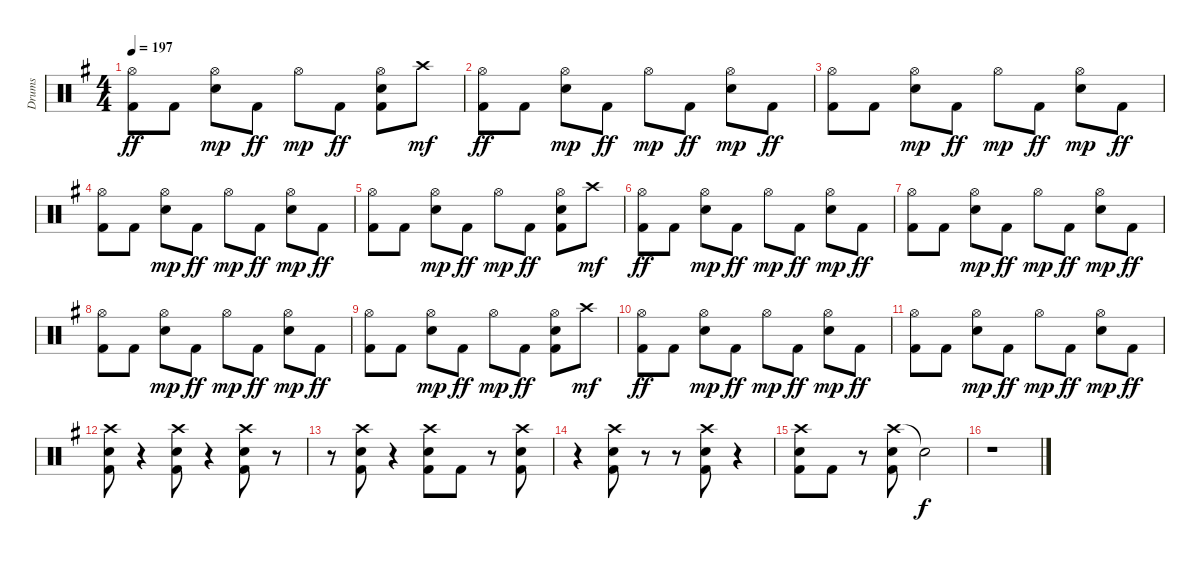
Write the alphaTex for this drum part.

\track ("Drums" "Drums") {instrument percussion}
\staff {score}
\articulation defaults
\ts (4 4)
\tempo 197
\clef neutral
\ks g
("Hi-Hat (open)" "Kick (hit) 2").8{dy ff} "Kick (hit) 2".8 ("Hi-Hat (open)" "Snare (hit) 2").8{dy mp} "Kick (hit) 2".8{dy ff} "Hi-Hat (open)".8{dy mp} "Kick (hit) 2".8{dy ff} ("Hi-Hat (open)" "Snare (hit) 2" "Kick (hit) 2").8 "Crash high (hit)".8{dy mf} |
("Hi-Hat (open)" "Kick (hit) 2").8{dy ff} "Kick (hit) 2".8 ("Hi-Hat (open)" "Snare (hit) 2").8{dy mp} "Kick (hit) 2".8{dy ff} "Hi-Hat (open)".8{dy mp} "Kick (hit) 2".8{dy ff} ("Hi-Hat (open)" "Snare (hit) 2").8{dy mp} "Kick (hit) 2".8{dy ff} |
("Hi-Hat (open)" "Kick (hit) 2").8 "Kick (hit) 2".8 ("Hi-Hat (open)" "Snare (hit) 2").8{dy mp} "Kick (hit) 2".8{dy ff} "Hi-Hat (open)".8{dy mp} "Kick (hit) 2".8{dy ff} ("Hi-Hat (open)" "Snare (hit) 2").8{dy mp} "Kick (hit) 2".8{dy ff} |
("Hi-Hat (open)" "Kick (hit) 2").8 "Kick (hit) 2".8 ("Hi-Hat (open)" "Snare (hit) 2").8{dy mp} "Kick (hit) 2".8{dy ff} "Hi-Hat (open)".8{dy mp} "Kick (hit) 2".8{dy ff} ("Hi-Hat (open)" "Snare (hit) 2").8{dy mp} "Kick (hit) 2".8{dy ff} |
("Hi-Hat (open)" "Kick (hit) 2").8 "Kick (hit) 2".8 ("Hi-Hat (open)" "Snare (hit) 2").8{dy mp} "Kick (hit) 2".8{dy ff} "Hi-Hat (open)".8{dy mp} "Kick (hit) 2".8{dy ff} ("Hi-Hat (open)" "Snare (hit) 2" "Kick (hit) 2").8 "Crash high (hit)".8{dy mf} |
("Hi-Hat (open)" "Kick (hit) 2").8{dy ff} "Kick (hit) 2".8 ("Hi-Hat (open)" "Snare (hit) 2").8{dy mp} "Kick (hit) 2".8{dy ff} "Hi-Hat (open)".8{dy mp} "Kick (hit) 2".8{dy ff} ("Hi-Hat (open)" "Snare (hit) 2").8{dy mp} "Kick (hit) 2".8{dy ff} |
("Hi-Hat (open)" "Kick (hit) 2").8 "Kick (hit) 2".8 ("Hi-Hat (open)" "Snare (hit) 2").8{dy mp} "Kick (hit) 2".8{dy ff} "Hi-Hat (open)".8{dy mp} "Kick (hit) 2".8{dy ff} ("Hi-Hat (open)" "Snare (hit) 2").8{dy mp} "Kick (hit) 2".8{dy ff} |
("Hi-Hat (open)" "Kick (hit) 2").8 "Kick (hit) 2".8 ("Hi-Hat (open)" "Snare (hit) 2").8{dy mp} "Kick (hit) 2".8{dy ff} "Hi-Hat (open)".8{dy mp} "Kick (hit) 2".8{dy ff} ("Hi-Hat (open)" "Snare (hit) 2").8{dy mp} "Kick (hit) 2".8{dy ff} |
("Hi-Hat (open)" "Kick (hit) 2").8 "Kick (hit) 2".8 ("Hi-Hat (open)" "Snare (hit) 2").8{dy mp} "Kick (hit) 2".8{dy ff} "Hi-Hat (open)".8{dy mp} "Kick (hit) 2".8{dy ff} ("Hi-Hat (open)" "Snare (hit) 2" "Kick (hit) 2").8 "Crash high (hit)".8{dy mf} |
("Hi-Hat (open)" "Kick (hit) 2").8{dy ff} "Kick (hit) 2".8 ("Hi-Hat (open)" "Snare (hit) 2").8{dy mp} "Kick (hit) 2".8{dy ff} "Hi-Hat (open)".8{dy mp} "Kick (hit) 2".8{dy ff} ("Hi-Hat (open)" "Snare (hit) 2").8{dy mp} "Kick (hit) 2".8{dy ff} |
("Hi-Hat (open)" "Kick (hit) 2").8 "Kick (hit) 2".8 ("Hi-Hat (open)" "Snare (hit) 2").8{dy mp} "Kick (hit) 2".8{dy ff} "Hi-Hat (open)".8{dy mp} "Kick (hit) 2".8{dy ff} ("Hi-Hat (open)" "Snare (hit) 2").8{dy mp} "Kick (hit) 2".8{dy ff} |
("Crash high (hit)" "Snare (hit) 2" "Kick (hit) 2").8 r.4 ("Crash high (hit)" "Snare (hit) 2" "Kick (hit) 2").8 r.4 ("Crash high (hit)" "Snare (hit) 2" "Kick (hit) 2").8 r.8 |
r.8 ("Crash high (hit)" "Snare (hit) 2" "Kick (hit) 2").8 r.4 ("Crash high (hit)" "Snare (hit) 2" "Kick (hit) 2").8 "Kick (hit) 2".8 r.8 ("Crash high (hit)" "Snare (hit) 2" "Kick (hit) 2").8 |
r.4 ("Crash high (hit)" "Snare (hit) 2" "Kick (hit) 2").8 r.8 r.8 ("Crash high (hit)" "Snare (hit) 2" "Kick (hit) 2").8 r.4 |
("Crash high (hit)" "Snare (hit) 2" "Kick (hit) 2").8 "Kick (hit) 2".8 r.8 ("Crash high (hit)" "Snare (hit) 2" "Kick (hit) 2").8 "Snare (hit)"{t}.2{dy f} |
r.1
